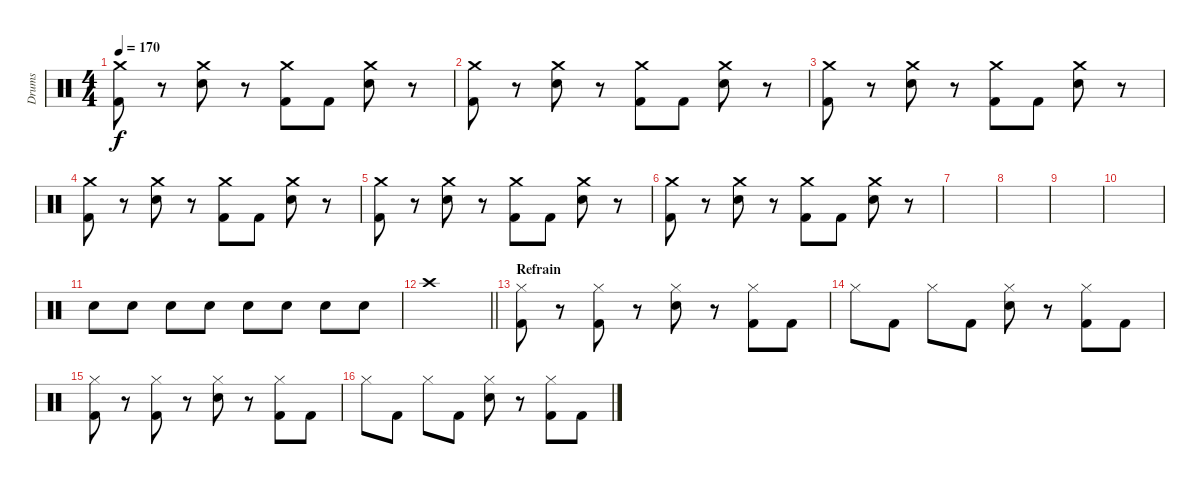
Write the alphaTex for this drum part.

\track ("Drums" "Drums") {instrument percussion}
\staff {score}
\articulation defaults
\ts (4 4)
\tempo 170
\clef neutral
\ks c
("Crash medium (hit)" "Kick (hit) 2").8{dy f} r.8 ("Crash medium (hit)" "Electric Snare (hit)").8 r.8 ("Crash medium (hit)" "Kick (hit) 2").8 "Kick (hit) 2".8 ("Crash medium (hit)" "Electric Snare (hit)").8 r.8 |
("Crash medium (hit)" "Kick (hit) 2").8 r.8 ("Crash medium (hit)" "Electric Snare (hit)").8 r.8 ("Crash medium (hit)" "Kick (hit) 2").8 "Kick (hit) 2".8 ("Crash medium (hit)" "Electric Snare (hit)").8 r.8 |
("Crash medium (hit)" "Kick (hit) 2").8 r.8 ("Crash medium (hit)" "Electric Snare (hit)").8 r.8 ("Crash medium (hit)" "Kick (hit) 2").8 "Kick (hit) 2".8 ("Crash medium (hit)" "Electric Snare (hit)").8 r.8 |
("Crash medium (hit)" "Kick (hit) 2").8 r.8 ("Crash medium (hit)" "Electric Snare (hit)").8 r.8 ("Crash medium (hit)" "Kick (hit) 2").8 "Kick (hit) 2".8 ("Crash medium (hit)" "Electric Snare (hit)").8 r.8 |
("Crash medium (hit)" "Kick (hit) 2").8 r.8 ("Crash medium (hit)" "Electric Snare (hit)").8 r.8 ("Crash medium (hit)" "Kick (hit) 2").8 "Kick (hit) 2".8 ("Crash medium (hit)" "Electric Snare (hit)").8 r.8 |
("Crash medium (hit)" "Kick (hit) 2").8 r.8 ("Crash medium (hit)" "Electric Snare (hit)").8 r.8 ("Crash medium (hit)" "Kick (hit) 2").8 "Kick (hit) 2".8 ("Crash medium (hit)" "Electric Snare (hit)").8 r.8 |
|
|
|
|
"Electric Snare (hit)".8 "Electric Snare (hit)".8 "Electric Snare (hit)".8 "Electric Snare (hit)".8 "Electric Snare (hit)".8 "Electric Snare (hit)".8 "Electric Snare (hit)".8 "Electric Snare (hit)".8 |
\barLineRight lightlight "Crash high (hit)".1
|
\section ("" "Refrain")
("Hi-Hat (closed)" "Kick (hit) 2").8 r.8 ("Hi-Hat (closed)" "Kick (hit) 2").8 r.8 ("Hi-Hat (closed)" "Electric Snare (hit)").8 r.8 ("Hi-Hat (closed)" "Kick (hit) 2").8 "Kick (hit) 2".8 |
"Hi-Hat (closed)".8 "Kick (hit) 2".8 "Hi-Hat (closed)".8 "Kick (hit) 2".8 ("Hi-Hat (closed)" "Electric Snare (hit)").8 r.8 ("Hi-Hat (closed)" "Kick (hit) 2").8 "Kick (hit) 2".8 |
("Hi-Hat (closed)" "Kick (hit) 2").8 r.8 ("Hi-Hat (closed)" "Kick (hit) 2").8 r.8 ("Hi-Hat (closed)" "Electric Snare (hit)").8 r.8 ("Hi-Hat (closed)" "Kick (hit) 2").8 "Kick (hit) 2".8 |
"Hi-Hat (closed)".8 "Kick (hit) 2".8 "Hi-Hat (closed)".8 "Kick (hit) 2".8 ("Hi-Hat (closed)" "Electric Snare (hit)").8 r.8 ("Hi-Hat (closed)" "Kick (hit) 2").8 "Kick (hit) 2".8
